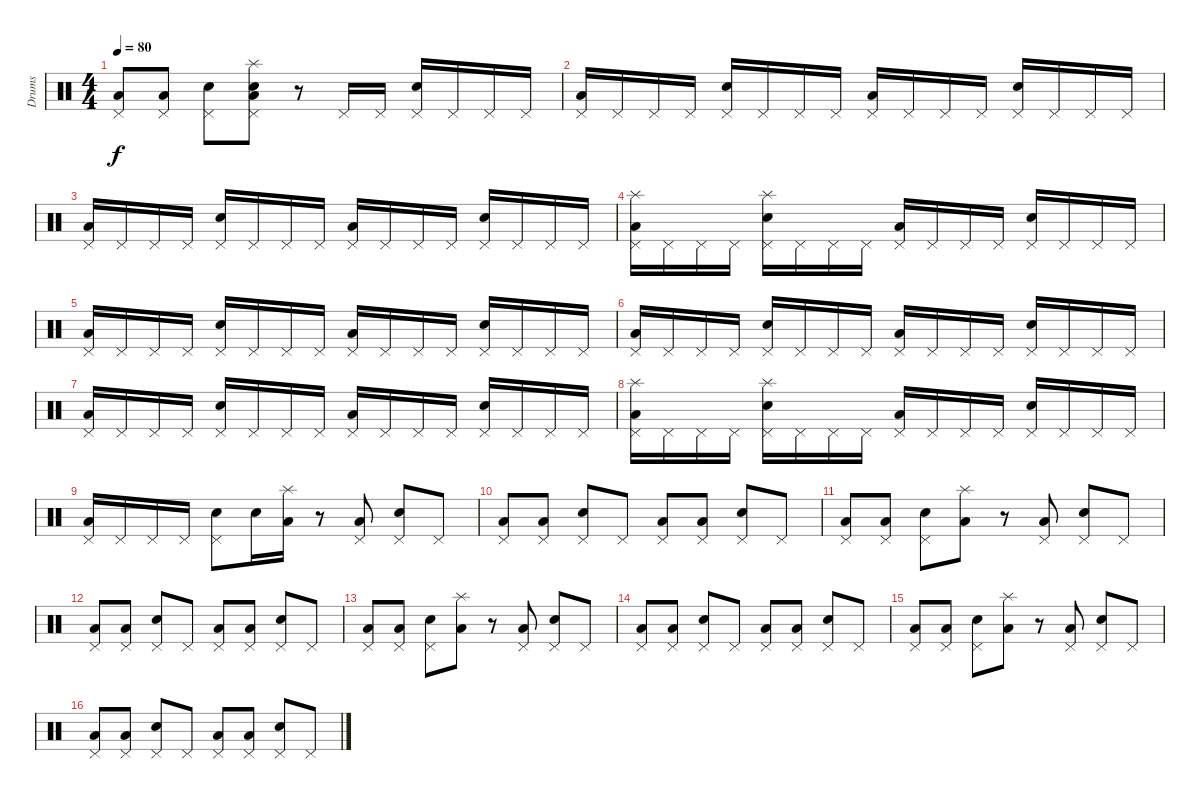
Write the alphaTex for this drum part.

\track ("Drums" "Drums") {instrument percussion}
\staff {score}
\articulation defaults
\ts (4 4)
\tempo 80
\clef neutral
\ks c
("Low Floor Tom (hit)" "Pedal Hi-Hat (hit)").8{dy f} ("Low Floor Tom (hit)" "Pedal Hi-Hat (hit)").8 ("Electric Snare (hit)" "Pedal Hi-Hat (hit)").8 ("Electric Snare (hit)" "Low Floor Tom (hit)" "Pedal Hi-Hat (hit)" "Splash (hit)").8 r.8 "Pedal Hi-Hat (hit)".16 "Pedal Hi-Hat (hit)".16 ("Electric Snare (hit)" "Pedal Hi-Hat (hit)").16 "Pedal Hi-Hat (hit)".16 "Pedal Hi-Hat (hit)".16 "Pedal Hi-Hat (hit)".16 |
("Low Floor Tom (hit)" "Pedal Hi-Hat (hit)").16 "Pedal Hi-Hat (hit)".16 "Pedal Hi-Hat (hit)".16 "Pedal Hi-Hat (hit)".16 ("Electric Snare (hit)" "Pedal Hi-Hat (hit)").16 "Pedal Hi-Hat (hit)".16 "Pedal Hi-Hat (hit)".16 "Pedal Hi-Hat (hit)".16 ("Low Floor Tom (hit)" "Pedal Hi-Hat (hit)").16 "Pedal Hi-Hat (hit)".16 "Pedal Hi-Hat (hit)".16 "Pedal Hi-Hat (hit)".16 ("Electric Snare (hit)" "Pedal Hi-Hat (hit)").16 "Pedal Hi-Hat (hit)".16 "Pedal Hi-Hat (hit)".16 "Pedal Hi-Hat (hit)".16 |
("Low Floor Tom (hit)" "Pedal Hi-Hat (hit)").16 "Pedal Hi-Hat (hit)".16 "Pedal Hi-Hat (hit)".16 "Pedal Hi-Hat (hit)".16 ("Electric Snare (hit)" "Pedal Hi-Hat (hit)").16 "Pedal Hi-Hat (hit)".16 "Pedal Hi-Hat (hit)".16 "Pedal Hi-Hat (hit)".16 ("Low Floor Tom (hit)" "Pedal Hi-Hat (hit)").16 "Pedal Hi-Hat (hit)".16 "Pedal Hi-Hat (hit)".16 "Pedal Hi-Hat (hit)".16 ("Electric Snare (hit)" "Pedal Hi-Hat (hit)").16 "Pedal Hi-Hat (hit)".16 "Pedal Hi-Hat (hit)".16 "Pedal Hi-Hat (hit)".16 |
("Low Floor Tom (hit)" "Pedal Hi-Hat (hit)" "Splash (hit)").16 "Pedal Hi-Hat (hit)".16 "Pedal Hi-Hat (hit)".16 "Pedal Hi-Hat (hit)".16 ("Electric Snare (hit)" "Pedal Hi-Hat (hit)" "Splash (hit)").16 "Pedal Hi-Hat (hit)".16 "Pedal Hi-Hat (hit)".16 "Pedal Hi-Hat (hit)".16 ("Low Floor Tom (hit)" "Pedal Hi-Hat (hit)").16 "Pedal Hi-Hat (hit)".16 "Pedal Hi-Hat (hit)".16 "Pedal Hi-Hat (hit)".16 ("Electric Snare (hit)" "Pedal Hi-Hat (hit)").16 "Pedal Hi-Hat (hit)".16 "Pedal Hi-Hat (hit)".16 "Pedal Hi-Hat (hit)".16 |
("Low Floor Tom (hit)" "Pedal Hi-Hat (hit)").16 "Pedal Hi-Hat (hit)".16 "Pedal Hi-Hat (hit)".16 "Pedal Hi-Hat (hit)".16 ("Electric Snare (hit)" "Pedal Hi-Hat (hit)").16 "Pedal Hi-Hat (hit)".16 "Pedal Hi-Hat (hit)".16 "Pedal Hi-Hat (hit)".16 ("Low Floor Tom (hit)" "Pedal Hi-Hat (hit)").16 "Pedal Hi-Hat (hit)".16 "Pedal Hi-Hat (hit)".16 "Pedal Hi-Hat (hit)".16 ("Electric Snare (hit)" "Pedal Hi-Hat (hit)").16 "Pedal Hi-Hat (hit)".16 "Pedal Hi-Hat (hit)".16 "Pedal Hi-Hat (hit)".16 |
("Low Floor Tom (hit)" "Pedal Hi-Hat (hit)").16 "Pedal Hi-Hat (hit)".16 "Pedal Hi-Hat (hit)".16 "Pedal Hi-Hat (hit)".16 ("Electric Snare (hit)" "Pedal Hi-Hat (hit)").16 "Pedal Hi-Hat (hit)".16 "Pedal Hi-Hat (hit)".16 "Pedal Hi-Hat (hit)".16 ("Low Floor Tom (hit)" "Pedal Hi-Hat (hit)").16 "Pedal Hi-Hat (hit)".16 "Pedal Hi-Hat (hit)".16 "Pedal Hi-Hat (hit)".16 ("Electric Snare (hit)" "Pedal Hi-Hat (hit)").16 "Pedal Hi-Hat (hit)".16 "Pedal Hi-Hat (hit)".16 "Pedal Hi-Hat (hit)".16 |
("Low Floor Tom (hit)" "Pedal Hi-Hat (hit)").16 "Pedal Hi-Hat (hit)".16 "Pedal Hi-Hat (hit)".16 "Pedal Hi-Hat (hit)".16 ("Electric Snare (hit)" "Pedal Hi-Hat (hit)").16 "Pedal Hi-Hat (hit)".16 "Pedal Hi-Hat (hit)".16 "Pedal Hi-Hat (hit)".16 ("Low Floor Tom (hit)" "Pedal Hi-Hat (hit)").16 "Pedal Hi-Hat (hit)".16 "Pedal Hi-Hat (hit)".16 "Pedal Hi-Hat (hit)".16 ("Electric Snare (hit)" "Pedal Hi-Hat (hit)").16 "Pedal Hi-Hat (hit)".16 "Pedal Hi-Hat (hit)".16 "Pedal Hi-Hat (hit)".16 |
("Low Floor Tom (hit)" "Pedal Hi-Hat (hit)" "Splash (hit)").16 "Pedal Hi-Hat (hit)".16 "Pedal Hi-Hat (hit)".16 "Pedal Hi-Hat (hit)".16 ("Electric Snare (hit)" "Pedal Hi-Hat (hit)" "Splash (hit)").16 "Pedal Hi-Hat (hit)".16 "Pedal Hi-Hat (hit)".16 "Pedal Hi-Hat (hit)".16 ("Low Floor Tom (hit)" "Pedal Hi-Hat (hit)").16 "Pedal Hi-Hat (hit)".16 "Pedal Hi-Hat (hit)".16 "Pedal Hi-Hat (hit)".16 ("Electric Snare (hit)" "Pedal Hi-Hat (hit)").16 "Pedal Hi-Hat (hit)".16 "Pedal Hi-Hat (hit)".16 "Pedal Hi-Hat (hit)".16 |
("Low Floor Tom (hit)" "Pedal Hi-Hat (hit)").16 "Pedal Hi-Hat (hit)".16 "Pedal Hi-Hat (hit)".16 "Pedal Hi-Hat (hit)".16 ("Electric Snare (hit)" "Pedal Hi-Hat (hit)").8 "Electric Snare (hit)".16 ("Low Floor Tom (hit)" "Splash (hit)").16 r.8 ("Low Floor Tom (hit)" "Pedal Hi-Hat (hit)").8 ("Electric Snare (hit)" "Pedal Hi-Hat (hit)").8 "Pedal Hi-Hat (hit)".8 |
("Low Floor Tom (hit)" "Pedal Hi-Hat (hit)").8 ("Low Floor Tom (hit)" "Pedal Hi-Hat (hit)").8 ("Electric Snare (hit)" "Pedal Hi-Hat (hit)").8 "Pedal Hi-Hat (hit)".8 ("Low Floor Tom (hit)" "Pedal Hi-Hat (hit)").8 ("Low Floor Tom (hit)" "Pedal Hi-Hat (hit)").8 ("Electric Snare (hit)" "Pedal Hi-Hat (hit)").8 "Pedal Hi-Hat (hit)".8 |
("Low Floor Tom (hit)" "Pedal Hi-Hat (hit)").8 ("Low Floor Tom (hit)" "Pedal Hi-Hat (hit)").8 ("Electric Snare (hit)" "Pedal Hi-Hat (hit)").8 ("Low Floor Tom (hit)" "Splash (hit)").8 r.8 ("Low Floor Tom (hit)" "Pedal Hi-Hat (hit)").8 ("Electric Snare (hit)" "Pedal Hi-Hat (hit)").8 "Pedal Hi-Hat (hit)".8 |
("Low Floor Tom (hit)" "Pedal Hi-Hat (hit)").8 ("Low Floor Tom (hit)" "Pedal Hi-Hat (hit)").8 ("Electric Snare (hit)" "Pedal Hi-Hat (hit)").8 "Pedal Hi-Hat (hit)".8 ("Low Floor Tom (hit)" "Pedal Hi-Hat (hit)").8 ("Low Floor Tom (hit)" "Pedal Hi-Hat (hit)").8 ("Electric Snare (hit)" "Pedal Hi-Hat (hit)").8 "Pedal Hi-Hat (hit)".8 |
("Low Floor Tom (hit)" "Pedal Hi-Hat (hit)").8 ("Low Floor Tom (hit)" "Pedal Hi-Hat (hit)").8 ("Electric Snare (hit)" "Pedal Hi-Hat (hit)").8 ("Low Floor Tom (hit)" "Splash (hit)").8 r.8 ("Low Floor Tom (hit)" "Pedal Hi-Hat (hit)").8 ("Electric Snare (hit)" "Pedal Hi-Hat (hit)").8 "Pedal Hi-Hat (hit)".8 |
("Low Floor Tom (hit)" "Pedal Hi-Hat (hit)").8 ("Low Floor Tom (hit)" "Pedal Hi-Hat (hit)").8 ("Electric Snare (hit)" "Pedal Hi-Hat (hit)").8 "Pedal Hi-Hat (hit)".8 ("Low Floor Tom (hit)" "Pedal Hi-Hat (hit)").8 ("Low Floor Tom (hit)" "Pedal Hi-Hat (hit)").8 ("Electric Snare (hit)" "Pedal Hi-Hat (hit)").8 "Pedal Hi-Hat (hit)".8 |
("Low Floor Tom (hit)" "Pedal Hi-Hat (hit)").8 ("Low Floor Tom (hit)" "Pedal Hi-Hat (hit)").8 ("Electric Snare (hit)" "Pedal Hi-Hat (hit)").8 ("Low Floor Tom (hit)" "Splash (hit)").8 r.8 ("Low Floor Tom (hit)" "Pedal Hi-Hat (hit)").8 ("Electric Snare (hit)" "Pedal Hi-Hat (hit)").8 "Pedal Hi-Hat (hit)".8 |
("Low Floor Tom (hit)" "Pedal Hi-Hat (hit)").8 ("Low Floor Tom (hit)" "Pedal Hi-Hat (hit)").8 ("Electric Snare (hit)" "Pedal Hi-Hat (hit)").8 "Pedal Hi-Hat (hit)".8 ("Low Floor Tom (hit)" "Pedal Hi-Hat (hit)").8 ("Low Floor Tom (hit)" "Pedal Hi-Hat (hit)").8 ("Electric Snare (hit)" "Pedal Hi-Hat (hit)").8 "Pedal Hi-Hat (hit)".8
